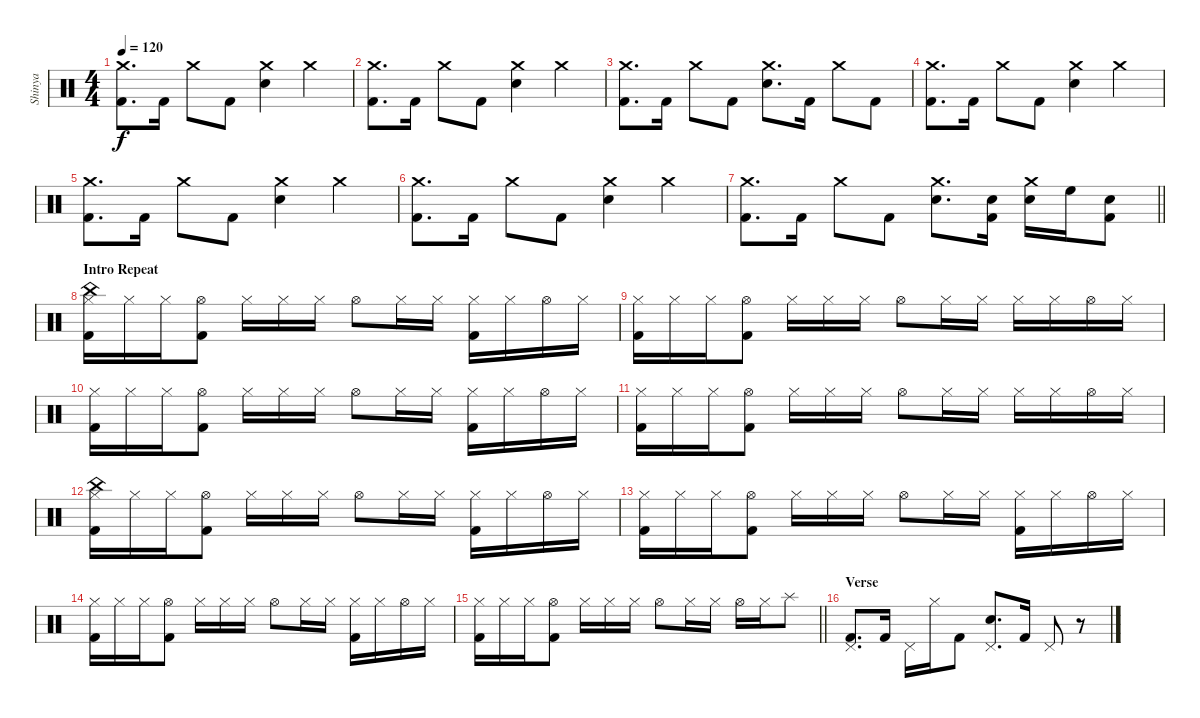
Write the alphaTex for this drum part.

\track ("Shinya" "Shinya") {instrument percussion}
\staff {score}
\articulation defaults
\ts (4 4)
\tempo 120
\clef neutral
\ks c
("Crash medium (hit)" "Kick (hit) 2").8{d dy f} "Kick (hit) 2".16 "Crash medium (hit)".8 "Kick (hit) 2".8 ("Crash medium (hit)" "Electric Snare (hit)").4 "Crash medium (hit)".4 |
("Crash medium (hit)" "Kick (hit) 2").8{d} "Kick (hit) 2".16 "Crash medium (hit)".8 "Kick (hit) 2".8 ("Crash medium (hit)" "Electric Snare (hit)").4 "Crash medium (hit)".4 |
("Crash medium (hit)" "Kick (hit) 2").8{d} "Kick (hit) 2".16 "Crash medium (hit)".8 "Kick (hit) 2".8 ("Crash medium (hit)" "Electric Snare (hit)").8{d} "Kick (hit) 2".16 "Crash medium (hit)".8 "Kick (hit) 2".8 |
("Crash medium (hit)" "Kick (hit) 2").8{d} "Kick (hit) 2".16 "Crash medium (hit)".8 "Kick (hit) 2".8 ("Crash medium (hit)" "Electric Snare (hit)").4 "Crash medium (hit)".4 |
("Crash medium (hit)" "Kick (hit) 2").8{d} "Kick (hit) 2".16 "Crash medium (hit)".8 "Kick (hit) 2".8 ("Crash medium (hit)" "Electric Snare (hit)").4 "Crash medium (hit)".4 |
("Crash medium (hit)" "Kick (hit) 2").8{d} "Kick (hit) 2".16 "Crash medium (hit)".8 "Kick (hit) 2".8 ("Crash medium (hit)" "Electric Snare (hit)").4 "Crash medium (hit)".4 |
\barLineRight lightlight
("Crash medium (hit)" "Kick (hit) 2").8{d} "Kick (hit) 2".16 "Crash medium (hit)".8 "Kick (hit) 2".8 ("Crash medium (hit)" "Electric Snare (hit)").8{d} ("Snare (hit) 2" "Kick (hit) 2").16 ("Crash medium (hit)" "Snare (hit) 2").16 "High Floor Tom (hit)".16 ("Electric Snare (hit)" "Kick (hit) 2").8 |
\section ("" "Intro Repeat")
("Hi-Hat (closed)" "China (hit)" "Kick (hit) 2").16 "Hi-Hat (closed)".16 "Hi-Hat (closed)".16 ("Hi-Hat (open)" "Kick (hit) 2").8 "Hi-Hat (closed)".16 "Hi-Hat (closed)".16 "Hi-Hat (closed)".16 "Hi-Hat (open)".8 "Hi-Hat (closed)".16 "Hi-Hat (closed)".16 ("Hi-Hat (closed)" "Kick (hit) 2").16 "Hi-Hat (closed)".16 "Hi-Hat (open)".16 "Hi-Hat (closed)".16 |
("Hi-Hat (closed)" "Kick (hit) 2").16 "Hi-Hat (closed)".16 "Hi-Hat (closed)".16 ("Hi-Hat (open)" "Kick (hit) 2").8 "Hi-Hat (closed)".16 "Hi-Hat (closed)".16 "Hi-Hat (closed)".16 "Hi-Hat (open)".8 "Hi-Hat (closed)".16 "Hi-Hat (closed)".16 "Hi-Hat (closed)".16 "Hi-Hat (closed)".16 "Hi-Hat (open)".16 "Hi-Hat (closed)".16 |
("Hi-Hat (closed)" "Kick (hit) 2").16 "Hi-Hat (closed)".16 "Hi-Hat (closed)".16 ("Hi-Hat (open)" "Kick (hit) 2").8 "Hi-Hat (closed)".16 "Hi-Hat (closed)".16 "Hi-Hat (closed)".16 "Hi-Hat (open)".8 "Hi-Hat (closed)".16 "Hi-Hat (closed)".16 ("Hi-Hat (closed)" "Kick (hit) 2").16 "Hi-Hat (closed)".16 "Hi-Hat (open)".16 "Hi-Hat (closed)".16 |
("Hi-Hat (closed)" "Kick (hit) 2").16 "Hi-Hat (closed)".16 "Hi-Hat (closed)".16 ("Hi-Hat (open)" "Kick (hit) 2").8 "Hi-Hat (closed)".16 "Hi-Hat (closed)".16 "Hi-Hat (closed)".16 "Hi-Hat (open)".8 "Hi-Hat (closed)".16 "Hi-Hat (closed)".16 "Hi-Hat (closed)".16 "Hi-Hat (closed)".16 "Hi-Hat (open)".16 "Hi-Hat (closed)".16 |
("Hi-Hat (closed)" "China (hit)" "Kick (hit) 2").16 "Hi-Hat (closed)".16 "Hi-Hat (closed)".16 ("Hi-Hat (open)" "Kick (hit) 2").8 "Hi-Hat (closed)".16 "Hi-Hat (closed)".16 "Hi-Hat (closed)".16 "Hi-Hat (open)".8 "Hi-Hat (closed)".16 "Hi-Hat (closed)".16 ("Hi-Hat (closed)" "Kick (hit) 2").16 "Hi-Hat (closed)".16 "Hi-Hat (open)".16 "Hi-Hat (closed)".16 |
("Hi-Hat (closed)" "Kick (hit) 2").16 "Hi-Hat (closed)".16 "Hi-Hat (closed)".16 ("Hi-Hat (open)" "Kick (hit) 2").8 "Hi-Hat (closed)".16 "Hi-Hat (closed)".16 "Hi-Hat (closed)".16 "Hi-Hat (open)".8 "Hi-Hat (closed)".16 "Hi-Hat (closed)".16 ("Hi-Hat (closed)" "Kick (hit) 2").16 "Hi-Hat (closed)".16 "Hi-Hat (open)".16 "Hi-Hat (closed)".16 |
("Hi-Hat (closed)" "Kick (hit) 2").16 "Hi-Hat (closed)".16 "Hi-Hat (closed)".16 ("Hi-Hat (open)" "Kick (hit) 2").8 "Hi-Hat (closed)".16 "Hi-Hat (closed)".16 "Hi-Hat (closed)".16 "Hi-Hat (open)".8 "Hi-Hat (closed)".16 "Hi-Hat (closed)".16 ("Hi-Hat (closed)" "Kick (hit) 2").16 "Hi-Hat (closed)".16 "Hi-Hat (open)".16 "Hi-Hat (closed)".16 |
\barLineRight lightlight
("Hi-Hat (closed)" "Kick (hit) 2").16 "Hi-Hat (closed)".16 "Hi-Hat (closed)".16 ("Hi-Hat (open)" "Kick (hit) 2").8 "Hi-Hat (closed)".16 "Hi-Hat (closed)".16 "Hi-Hat (closed)".16 "Hi-Hat (open)".8 "Hi-Hat (closed)".16 "Hi-Hat (closed)".16 "Hi-Hat (open)".16 "Hi-Hat (closed)".16 "Splash (hit)".8 |
\section ("" "Verse")
("Pedal Hi-Hat (hit)" "Kick (hit) 2").8{d} "Kick (hit) 2".16 "Pedal Hi-Hat (hit)".16 "Hi-Hat (closed)".16 "Kick (hit) 2".8 ("Pedal Hi-Hat (hit)" "Electric Snare (hit)").8{d} "Kick (hit) 2".16 "Pedal Hi-Hat (hit)".8 r.8
